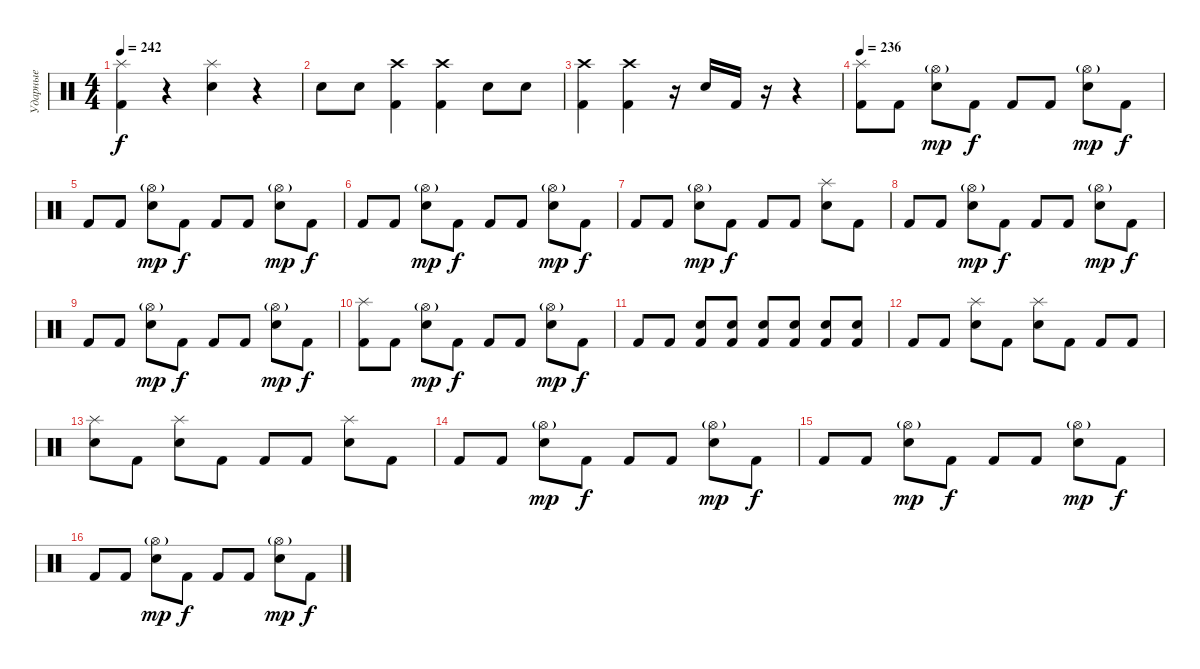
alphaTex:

\track ("Ударные" "Ударные") {instrument percussion}
\staff {score}
\articulation defaults
\ts (4 4)
\tempo 242
\clef neutral
\ks c
("Splash (hit)" "Kick (hit) 2").4{dy f} r.4 ("Splash (hit)" "Electric Snare (hit)").4 r.4 |
"Electric Snare (hit)".8 "Electric Snare (hit)".8 ("Crash high (hit)" "Kick (hit) 2").4 ("Crash high (hit)" "Kick (hit) 2").4 "Electric Snare (hit)".8 "Electric Snare (hit)".8 |
("Crash high (hit)" "Kick (hit) 2").4 ("Crash high (hit)" "Kick (hit) 2").4 r.16 "Electric Snare (hit)".16 "Kick (hit) 2".16 r.16 r.4 |
\tempo 236
("Splash (hit)" "Kick (hit) 2").8 "Kick (hit) 2".8 ("Hi-Hat (open)"{g} "Electric Snare (hit)").8{dy mp} "Kick (hit) 2".8{dy f} "Kick (hit) 2".8 "Kick (hit) 2".8 ("Hi-Hat (open)"{g} "Electric Snare (hit)").8{dy mp} "Kick (hit) 2".8{dy f} |
"Kick (hit) 2".8 "Kick (hit) 2".8 ("Hi-Hat (open)"{g} "Electric Snare (hit)").8{dy mp} "Kick (hit) 2".8{dy f} "Kick (hit) 2".8 "Kick (hit) 2".8 ("Hi-Hat (open)"{g} "Electric Snare (hit)").8{dy mp} "Kick (hit) 2".8{dy f} |
"Kick (hit) 2".8 "Kick (hit) 2".8 ("Hi-Hat (open)"{g} "Electric Snare (hit)").8{dy mp} "Kick (hit) 2".8{dy f} "Kick (hit) 2".8 "Kick (hit) 2".8 ("Hi-Hat (open)"{g} "Electric Snare (hit)").8{dy mp} "Kick (hit) 2".8{dy f} |
"Kick (hit) 2".8 "Kick (hit) 2".8 ("Hi-Hat (open)"{g} "Electric Snare (hit)").8{dy mp} "Kick (hit) 2".8{dy f} "Kick (hit) 2".8 "Kick (hit) 2".8 ("Splash (hit)" "Electric Snare (hit)").8 "Kick (hit) 2".8 |
"Kick (hit) 2".8 "Kick (hit) 2".8 ("Hi-Hat (open)"{g} "Electric Snare (hit)").8{dy mp} "Kick (hit) 2".8{dy f} "Kick (hit) 2".8 "Kick (hit) 2".8 ("Hi-Hat (open)"{g} "Electric Snare (hit)").8{dy mp} "Kick (hit) 2".8{dy f} |
"Kick (hit) 2".8 "Kick (hit) 2".8 ("Hi-Hat (open)"{g} "Electric Snare (hit)").8{dy mp} "Kick (hit) 2".8{dy f} "Kick (hit) 2".8 "Kick (hit) 2".8 ("Hi-Hat (open)"{g} "Electric Snare (hit)").8{dy mp} "Kick (hit) 2".8{dy f} |
("Splash (hit)" "Kick (hit) 2").8 "Kick (hit) 2".8 ("Hi-Hat (open)"{g} "Electric Snare (hit)").8{dy mp} "Kick (hit) 2".8{dy f} "Kick (hit) 2".8 "Kick (hit) 2".8 ("Hi-Hat (open)"{g} "Electric Snare (hit)").8{dy mp} "Kick (hit) 2".8{dy f} |
"Kick (hit) 2".8 "Kick (hit) 2".8 ("Electric Snare (hit)" "Kick (hit) 2").8 ("Electric Snare (hit)" "Kick (hit) 2").8 ("Electric Snare (hit)" "Kick (hit) 2").8 ("Electric Snare (hit)" "Kick (hit) 2").8 ("Electric Snare (hit)" "Kick (hit) 2").8 ("Electric Snare (hit)" "Kick (hit) 2").8 |
"Kick (hit) 2".8 "Kick (hit) 2".8 ("Splash (hit)" "Electric Snare (hit)").8 "Kick (hit) 2".8 ("Splash (hit)" "Electric Snare (hit)").8 "Kick (hit) 2".8 "Kick (hit) 2".8 "Kick (hit) 2".8 |
("Splash (hit)" "Electric Snare (hit)").8 "Kick (hit) 2".8 ("Splash (hit)" "Electric Snare (hit)").8 "Kick (hit) 2".8 "Kick (hit) 2".8 "Kick (hit) 2".8 ("Splash (hit)" "Electric Snare (hit)").8 "Kick (hit) 2".8 |
"Kick (hit) 2".8 "Kick (hit) 2".8 ("Hi-Hat (open)"{g} "Electric Snare (hit)").8{dy mp} "Kick (hit) 2".8{dy f} "Kick (hit) 2".8 "Kick (hit) 2".8 ("Hi-Hat (open)"{g} "Electric Snare (hit)").8{dy mp} "Kick (hit) 2".8{dy f} |
"Kick (hit) 2".8 "Kick (hit) 2".8 ("Hi-Hat (open)"{g} "Electric Snare (hit)").8{dy mp} "Kick (hit) 2".8{dy f} "Kick (hit) 2".8 "Kick (hit) 2".8 ("Hi-Hat (open)"{g} "Electric Snare (hit)").8{dy mp} "Kick (hit) 2".8{dy f} |
"Kick (hit) 2".8 "Kick (hit) 2".8 ("Hi-Hat (open)"{g} "Electric Snare (hit)").8{dy mp} "Kick (hit) 2".8{dy f} "Kick (hit) 2".8 "Kick (hit) 2".8 ("Hi-Hat (open)"{g} "Electric Snare (hit)").8{dy mp} "Kick (hit) 2".8{dy f}
